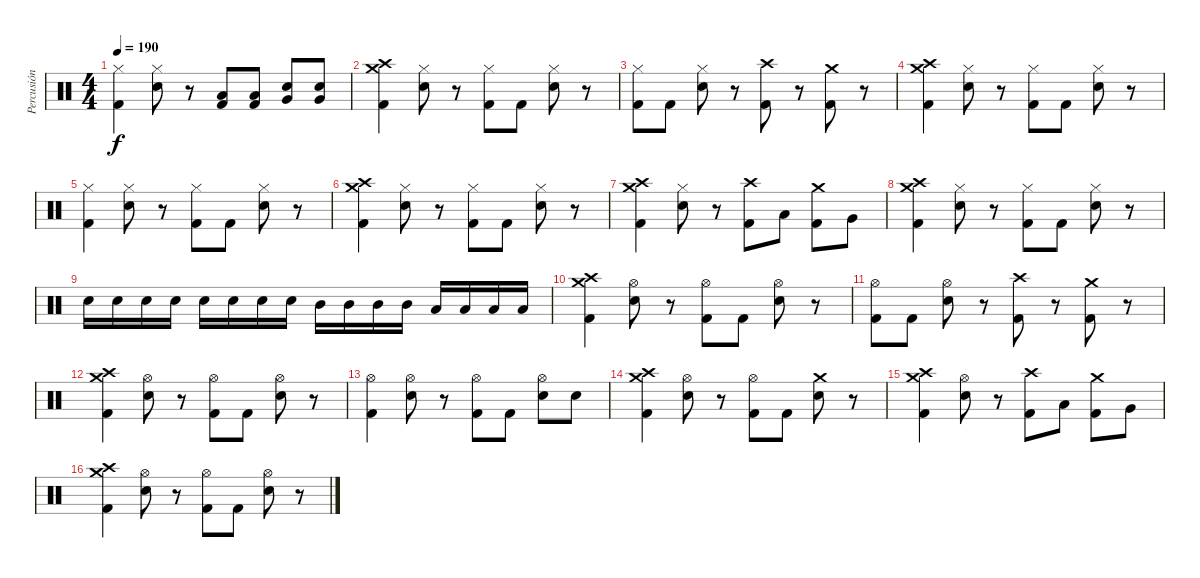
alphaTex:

\track ("Percusión" "Percusión") {instrument percussion}
\staff {score}
\articulation defaults
\ts (4 4)
\tempo 190
\clef neutral
\ks c
("Hi-Hat (closed)" "Kick (hit) 2").4{dy f} ("Hi-Hat (closed)" "Electric Snare (hit)").8 r.8 ("Low Tom (hit)" "Kick (hit) 2").8 ("Low Tom (hit)" "Kick (hit) 2").8 ("Very Low Tom (hit)" "Electric Snare (hit)").8 ("Very Low Tom (hit)" "Electric Snare (hit)").8 |
("Crash high (hit)" "Crash medium (hit)" "Kick (hit) 2").4 ("Hi-Hat (closed)" "Electric Snare (hit)").8 r.8 ("Hi-Hat (closed)" "Kick (hit) 2").8 "Kick (hit) 2".8 ("Hi-Hat (closed)" "Electric Snare (hit)").8 r.8 |
("Hi-Hat (closed)" "Kick (hit) 2").8 "Kick (hit) 2".8 ("Hi-Hat (closed)" "Electric Snare (hit)").8 r.8 ("Crash high (hit)" "Kick (hit) 2").8 r.8 ("Crash medium (hit)" "Kick (hit) 2").8 r.8 |
("Crash high (hit)" "Crash medium (hit)" "Kick (hit) 2").4 ("Hi-Hat (closed)" "Electric Snare (hit)").8 r.8 ("Hi-Hat (closed)" "Kick (hit) 2").8 "Kick (hit) 2".8 ("Hi-Hat (closed)" "Electric Snare (hit)").8 r.8 |
("Hi-Hat (closed)" "Kick (hit) 2").4 ("Hi-Hat (closed)" "Electric Snare (hit)").8 r.8 ("Hi-Hat (closed)" "Kick (hit) 2").8 "Kick (hit) 2".8 ("Hi-Hat (closed)" "Electric Snare (hit)").8 r.8 |
("Crash high (hit)" "Crash medium (hit)" "Kick (hit) 2").4 ("Hi-Hat (closed)" "Electric Snare (hit)").8 r.8 ("Hi-Hat (closed)" "Kick (hit) 2").8 "Kick (hit) 2".8 ("Hi-Hat (closed)" "Electric Snare (hit)").8 r.8 |
("Crash high (hit)" "Crash medium (hit)" "Kick (hit) 2").4 ("Hi-Hat (closed)" "Electric Snare (hit)").8 r.8 ("Crash high (hit)" "Kick (hit) 2").8 "Low Tom (hit)".8 ("Crash medium (hit)" "Kick (hit) 2").8 "Very Low Tom (hit)".8 |
("Crash high (hit)" "Crash medium (hit)" "Kick (hit) 2").4 ("Hi-Hat (closed)" "Electric Snare (hit)").8 r.8 ("Hi-Hat (closed)" "Kick (hit) 2").8 "Kick (hit) 2".8 ("Hi-Hat (closed)" "Electric Snare (hit)").8 r.8 |
"Electric Snare (hit)".16 "Electric Snare (hit)".16 "Electric Snare (hit)".16 "Electric Snare (hit)".16 "Electric Snare (hit)".16 "Electric Snare (hit)".16 "Electric Snare (hit)".16 "Electric Snare (hit)".16 "Mid Tom (hit)".16 "Mid Tom (hit)".16 "Mid Tom (hit)".16 "Mid Tom (hit)".16 "Low Tom (hit)".16 "Low Tom (hit)".16 "Low Tom (hit)".16 "Low Tom (hit)".16 |
("Crash high (hit)" "Crash medium (hit)" "Kick (hit) 2").4 ("Hi-Hat (open)" "Electric Snare (hit)").8 r.8 ("Hi-Hat (open)" "Kick (hit) 2").8 "Kick (hit) 2".8 ("Hi-Hat (open)" "Electric Snare (hit)").8 r.8 |
("Hi-Hat (open)" "Kick (hit) 2").8 "Kick (hit) 2".8 ("Hi-Hat (open)" "Electric Snare (hit)").8 r.8 ("Crash high (hit)" "Kick (hit) 2").8 r.8 ("Crash medium (hit)" "Kick (hit) 2").8 r.8 |
("Crash high (hit)" "Crash medium (hit)" "Kick (hit) 2").4 ("Hi-Hat (open)" "Electric Snare (hit)").8 r.8 ("Hi-Hat (open)" "Kick (hit) 2").8 "Kick (hit) 2".8 ("Hi-Hat (open)" "Electric Snare (hit)").8 r.8 |
("Hi-Hat (open)" "Kick (hit) 2").4 ("Hi-Hat (open)" "Electric Snare (hit)").8 r.8 ("Hi-Hat (open)" "Kick (hit) 2").8 "Kick (hit) 2".8 ("Hi-Hat (open)" "Electric Snare (hit)").8 "Electric Snare (hit)".8 |
("Crash high (hit)" "Crash medium (hit)" "Kick (hit) 2").4 ("Hi-Hat (open)" "Electric Snare (hit)").8 r.8 ("Hi-Hat (open)" "Kick (hit) 2").8 "Kick (hit) 2".8 ("Crash medium (hit)" "Electric Snare (hit)").8 r.8 |
("Crash high (hit)" "Crash medium (hit)" "Kick (hit) 2").4 ("Hi-Hat (open)" "Electric Snare (hit)").8 r.8 ("Crash high (hit)" "Kick (hit) 2").8 "Low Tom (hit)".8 ("Crash medium (hit)" "Kick (hit) 2").8 "Very Low Tom (hit)".8 |
("Crash high (hit)" "Crash medium (hit)" "Kick (hit) 2").4 ("Hi-Hat (open)" "Electric Snare (hit)").8 r.8 ("Hi-Hat (open)" "Kick (hit) 2").8 "Kick (hit) 2".8 ("Hi-Hat (open)" "Electric Snare (hit)").8 r.8
